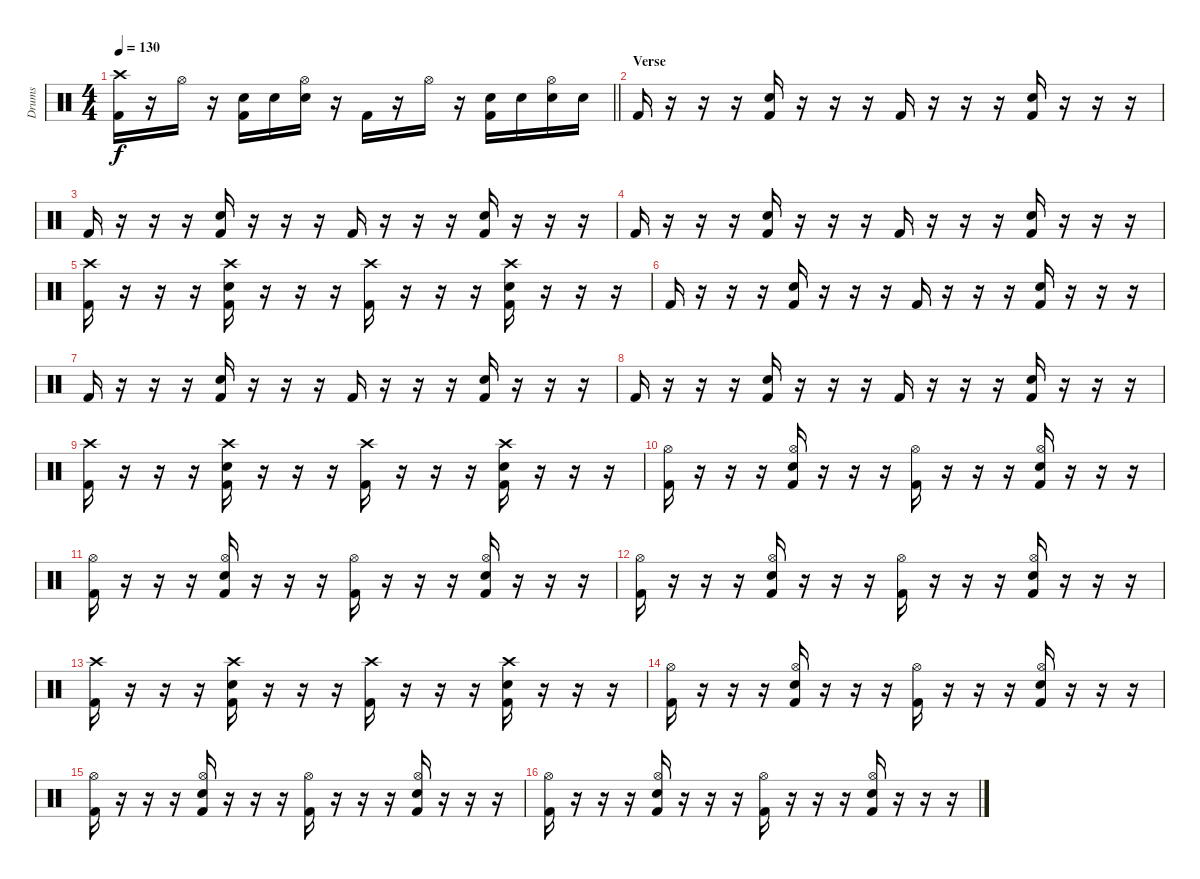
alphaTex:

\track ("Drums" "Drums") {instrument percussion}
\staff {score}
\articulation defaults
\ts (4 4)
\tempo 130
\clef neutral
\barLineRight lightlight
\ks c
("Crash high (hit)" "Kick (hit) 2").16{dy f} r.16 "Hi-Hat (open)".16 r.16 ("Electric Snare (hit)" "Kick (hit) 2").16 "Electric Snare (hit)".16 ("Hi-Hat (open)" "Electric Snare (hit)").16 r.16 "Kick (hit) 2".16 r.16 "Hi-Hat (open)".16 r.16 ("Electric Snare (hit)" "Kick (hit) 2").16 "Electric Snare (hit)".16 ("Hi-Hat (open)" "Electric Snare (hit)").16 "Electric Snare (hit)".16 |
\section ("" "Verse")
"Kick (hit) 2".16 r.16 r.16 r.16 ("Hand Clap (hit)" "Kick (hit) 2").16 r.16 r.16 r.16 "Kick (hit) 2".16 r.16 r.16 r.16 ("Hand Clap (hit)" "Kick (hit) 2").16 r.16 r.16 r.16 |
"Kick (hit) 2".16 r.16 r.16 r.16 ("Hand Clap (hit)" "Kick (hit) 2").16 r.16 r.16 r.16 "Kick (hit) 2".16 r.16 r.16 r.16 ("Hand Clap (hit)" "Kick (hit) 2").16 r.16 r.16 r.16 |
"Kick (hit) 2".16 r.16 r.16 r.16 ("Hand Clap (hit)" "Kick (hit) 2").16 r.16 r.16 r.16 "Kick (hit) 2".16 r.16 r.16 r.16 ("Hand Clap (hit)" "Kick (hit) 2").16 r.16 r.16 r.16 |
("Crash high (hit)" "Kick (hit) 2").16 r.16 r.16 r.16 ("Crash high (hit)" "Hand Clap (hit)" "Kick (hit) 2").16 r.16 r.16 r.16 ("Crash high (hit)" "Kick (hit) 2").16 r.16 r.16 r.16 ("Crash high (hit)" "Hand Clap (hit)" "Kick (hit) 2").16 r.16 r.16 r.16 |
"Kick (hit) 2".16 r.16 r.16 r.16 ("Hand Clap (hit)" "Kick (hit) 2").16 r.16 r.16 r.16 "Kick (hit) 2".16 r.16 r.16 r.16 ("Hand Clap (hit)" "Kick (hit) 2").16 r.16 r.16 r.16 |
"Kick (hit) 2".16 r.16 r.16 r.16 ("Hand Clap (hit)" "Kick (hit) 2").16 r.16 r.16 r.16 "Kick (hit) 2".16 r.16 r.16 r.16 ("Hand Clap (hit)" "Kick (hit) 2").16 r.16 r.16 r.16 |
"Kick (hit) 2".16 r.16 r.16 r.16 ("Hand Clap (hit)" "Kick (hit) 2").16 r.16 r.16 r.16 "Kick (hit) 2".16 r.16 r.16 r.16 ("Hand Clap (hit)" "Kick (hit) 2").16 r.16 r.16 r.16 |
("Crash high (hit)" "Kick (hit) 2").16 r.16 r.16 r.16 ("Crash high (hit)" "Hand Clap (hit)" "Kick (hit) 2").16 r.16 r.16 r.16 ("Crash high (hit)" "Kick (hit) 2").16 r.16 r.16 r.16 ("Crash high (hit)" "Hand Clap (hit)" "Kick (hit) 2").16 r.16 r.16 r.16 |
("Hi-Hat (open)" "Kick (hit) 2").16 r.16 r.16 r.16 ("Hi-Hat (open)" "Hand Clap (hit)" "Kick (hit) 2").16 r.16 r.16 r.16 ("Hi-Hat (open)" "Kick (hit) 2").16 r.16 r.16 r.16 ("Hi-Hat (open)" "Hand Clap (hit)" "Kick (hit) 2").16 r.16 r.16 r.16 |
("Hi-Hat (open)" "Kick (hit) 2").16 r.16 r.16 r.16 ("Hi-Hat (open)" "Hand Clap (hit)" "Kick (hit) 2").16 r.16 r.16 r.16 ("Hi-Hat (open)" "Kick (hit) 2").16 r.16 r.16 r.16 ("Hi-Hat (open)" "Hand Clap (hit)" "Kick (hit) 2").16 r.16 r.16 r.16 |
("Hi-Hat (open)" "Kick (hit) 2").16 r.16 r.16 r.16 ("Hi-Hat (open)" "Hand Clap (hit)" "Kick (hit) 2").16 r.16 r.16 r.16 ("Hi-Hat (open)" "Kick (hit) 2").16 r.16 r.16 r.16 ("Hi-Hat (open)" "Hand Clap (hit)" "Kick (hit) 2").16 r.16 r.16 r.16 |
("Crash high (hit)" "Kick (hit) 2").16 r.16 r.16 r.16 ("Crash high (hit)" "Hand Clap (hit)" "Kick (hit) 2").16 r.16 r.16 r.16 ("Crash high (hit)" "Kick (hit) 2").16 r.16 r.16 r.16 ("Crash high (hit)" "Hand Clap (hit)" "Kick (hit) 2").16 r.16 r.16 r.16 |
("Hi-Hat (open)" "Kick (hit) 2").16 r.16 r.16 r.16 ("Hi-Hat (open)" "Hand Clap (hit)" "Kick (hit) 2").16 r.16 r.16 r.16 ("Hi-Hat (open)" "Kick (hit) 2").16 r.16 r.16 r.16 ("Hi-Hat (open)" "Hand Clap (hit)" "Kick (hit) 2").16 r.16 r.16 r.16 |
("Hi-Hat (open)" "Kick (hit) 2").16 r.16 r.16 r.16 ("Hi-Hat (open)" "Hand Clap (hit)" "Kick (hit) 2").16 r.16 r.16 r.16 ("Hi-Hat (open)" "Kick (hit) 2").16 r.16 r.16 r.16 ("Hi-Hat (open)" "Hand Clap (hit)" "Kick (hit) 2").16 r.16 r.16 r.16 |
("Hi-Hat (open)" "Kick (hit) 2").16 r.16 r.16 r.16 ("Hi-Hat (open)" "Hand Clap (hit)" "Kick (hit) 2").16 r.16 r.16 r.16 ("Hi-Hat (open)" "Kick (hit) 2").16 r.16 r.16 r.16 ("Hi-Hat (open)" "Hand Clap (hit)" "Kick (hit) 2").16 r.16 r.16 r.16
